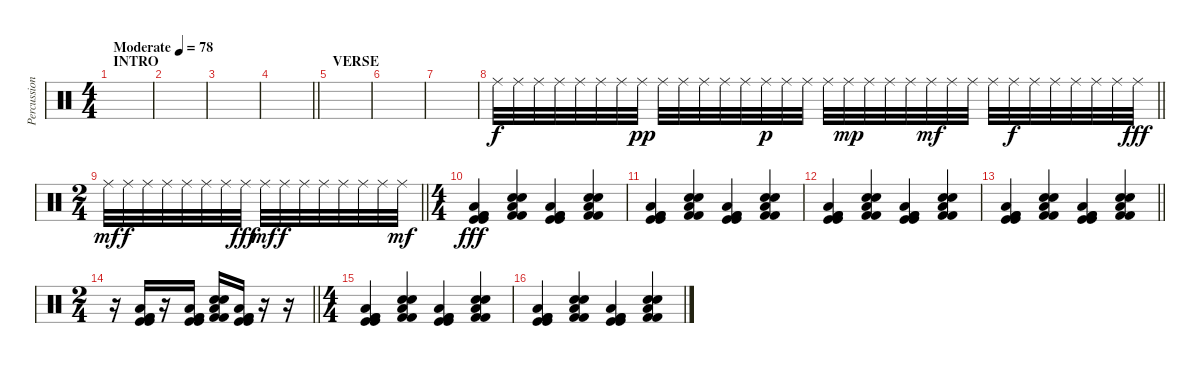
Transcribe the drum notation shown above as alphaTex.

\track ("Percussion" "Percussion") {instrument percussion}
\staff {score}
\articulation defaults
\ts (4 4)
\section ("" "INTRO")
\tempo (78 "Moderate")
\clef neutral
\ks c
|
|
|
\barLineRight lightlight
|
\section ("" "VERSE")
|
|
|
\barLineRight lightlight "Ride (middle)".32 "Ride (middle)".32 "Ride (middle)".32 "Ride (middle)".32 "Ride (middle)".32 "Ride (middle)".32 "Ride (middle)".32 "Ride (middle)".32{dy pp} "Ride (middle)".32 "Ride (middle)".32 "Ride (middle)".32 "Ride (middle)".32 "Ride (middle)".32 "Ride (middle)".32{dy p} "Ride (middle)".32 "Ride (middle)".32 "Ride (middle)".32 "Ride (middle)".32{dy mp} "Ride (middle)".32 "Ride (middle)".32 "Ride (middle)".32 "Ride (middle)".32{dy mf} "Ride (middle)".32 "Ride (middle)".32 "Ride (middle)".32 "Ride (middle)".32{dy f} "Ride (middle)".32 "Ride (middle)".32 "Ride (middle)".32 "Ride (middle)".32 "Ride (middle)".32 "Ride (middle)".32{dy fff}
|
\ts (2 4)
\barLineRight lightlight "Ride (middle)".32{dy mf} "Ride (middle)".32{dy f} "Ride (middle)".32 "Ride (middle)".32 "Ride (middle)".32 "Ride (middle)".32 "Ride (middle)".32 "Ride (middle)".32{dy fff} "Ride (middle)".32{dy mf} "Ride (middle)".32{dy f} "Ride (middle)".32 "Ride (middle)".32 "Ride (middle)".32 "Ride (middle)".32 "Ride (middle)".32 "Ride (middle)".32{dy mf}
|
\ts (4 4)
("Kick (hit) 2" "Kick (hit) 2" "Kick (hit)" "Kick (hit)" "Low Floor Tom (hit)").4{dy fff} ("Low Floor Tom (hit)" "Kick (hit) 2" "Kick (hit) 2" "Electric Snare (hit)" "Electric Snare (hit)").4 ("Kick (hit) 2" "Kick (hit) 2" "Kick (hit)" "Kick (hit)" "Low Floor Tom (hit)").4 ("Low Floor Tom (hit)" "Kick (hit) 2" "Kick (hit) 2" "Electric Snare (hit)" "Electric Snare (hit)").4 |
("Kick (hit) 2" "Kick (hit) 2" "Kick (hit)" "Kick (hit)" "Low Floor Tom (hit)").4 ("Low Floor Tom (hit)" "Kick (hit) 2" "Kick (hit) 2" "Electric Snare (hit)" "Electric Snare (hit)").4 ("Kick (hit) 2" "Kick (hit) 2" "Kick (hit)" "Kick (hit)" "Low Floor Tom (hit)").4 ("Low Floor Tom (hit)" "Kick (hit) 2" "Kick (hit) 2" "Electric Snare (hit)" "Electric Snare (hit)").4 |
("Kick (hit) 2" "Kick (hit) 2" "Kick (hit)" "Kick (hit)" "Low Floor Tom (hit)").4 ("Low Floor Tom (hit)" "Kick (hit) 2" "Kick (hit) 2" "Electric Snare (hit)" "Electric Snare (hit)").4 ("Kick (hit) 2" "Kick (hit) 2" "Kick (hit)" "Kick (hit)" "Low Floor Tom (hit)").4 ("Low Floor Tom (hit)" "Kick (hit) 2" "Kick (hit) 2" "Electric Snare (hit)" "Electric Snare (hit)").4 |
\barLineRight lightlight
("Kick (hit) 2" "Kick (hit) 2" "Kick (hit)" "Kick (hit)" "Low Floor Tom (hit)").4 ("Low Floor Tom (hit)" "Kick (hit) 2" "Kick (hit) 2" "Electric Snare (hit)" "Electric Snare (hit)").4 ("Kick (hit) 2" "Kick (hit) 2" "Kick (hit)" "Kick (hit)" "Low Floor Tom (hit)").4 ("Low Floor Tom (hit)" "Kick (hit) 2" "Kick (hit) 2" "Electric Snare (hit)" "Electric Snare (hit)").4 |
\ts (2 4)
\barLineRight lightlight
r.16 ("Kick (hit) 2" "Kick (hit) 2" "Kick (hit)" "Kick (hit)" "Low Floor Tom (hit)").16 r.16 ("Kick (hit) 2" "Kick (hit) 2" "Kick (hit)" "Kick (hit)" "Low Floor Tom (hit)").16 ("Low Floor Tom (hit)" "Kick (hit) 2" "Kick (hit) 2" "Electric Snare (hit)" "Electric Snare (hit)").16 ("Kick (hit) 2" "Kick (hit) 2" "Kick (hit)" "Kick (hit)" "Low Floor Tom (hit)").16 r.16 r.16 |
\ts (4 4)
("Kick (hit) 2" "Kick (hit) 2" "Kick (hit)" "Kick (hit)" "Low Floor Tom (hit)").4 ("Low Floor Tom (hit)" "Kick (hit) 2" "Kick (hit) 2" "Electric Snare (hit)" "Electric Snare (hit)").4 ("Kick (hit) 2" "Kick (hit) 2" "Kick (hit)" "Kick (hit)" "Low Floor Tom (hit)").4 ("Low Floor Tom (hit)" "Kick (hit) 2" "Kick (hit) 2" "Electric Snare (hit)" "Electric Snare (hit)").4 |
("Kick (hit) 2" "Kick (hit) 2" "Kick (hit)" "Kick (hit)" "Low Floor Tom (hit)").4 ("Low Floor Tom (hit)" "Kick (hit) 2" "Kick (hit) 2" "Electric Snare (hit)" "Electric Snare (hit)").4 ("Kick (hit) 2" "Kick (hit) 2" "Kick (hit)" "Kick (hit)" "Low Floor Tom (hit)").4 ("Low Floor Tom (hit)" "Kick (hit) 2" "Kick (hit) 2" "Electric Snare (hit)" "Electric Snare (hit)").4
